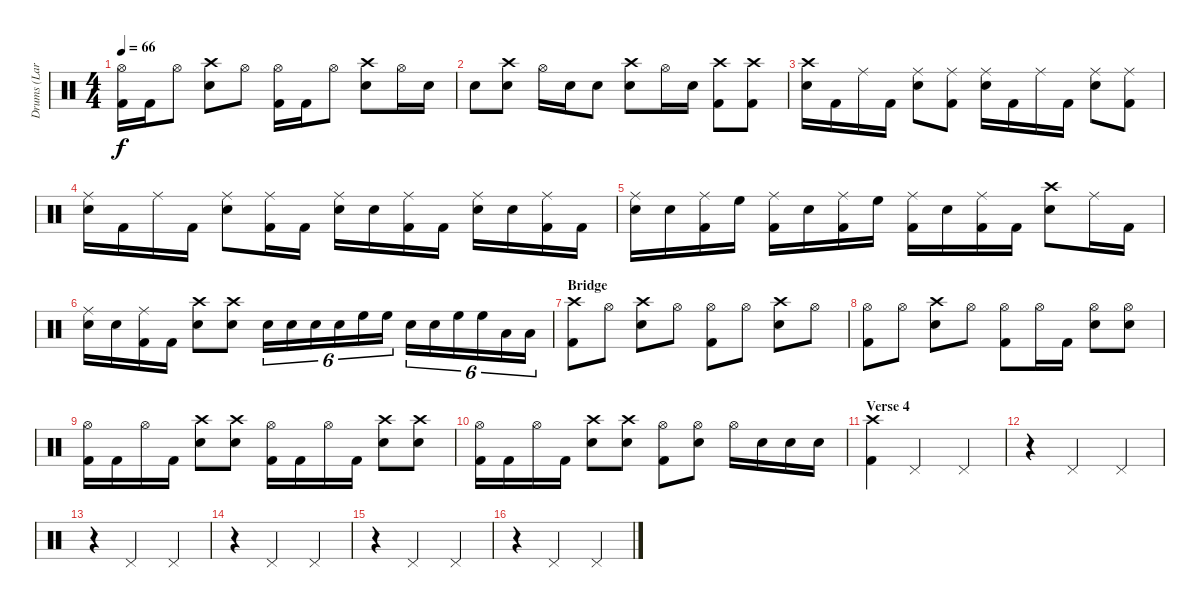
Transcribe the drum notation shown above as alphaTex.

\track ("Drums (Lars)" "Drums (Lar") {instrument percussion}
\staff {score}
\articulation defaults
\ts (4 4)
\tempo 66
\clef neutral
\ks c
("Hi-Hat (open)" "Kick (hit) 2").16{dy f} "Kick (hit) 2".16 "Hi-Hat (open)".8 ("Crash high (hit)" "Snare (hit) 2").8 "Hi-Hat (open)".8 ("Hi-Hat (open)" "Kick (hit) 2").16 "Kick (hit) 2".16 "Hi-Hat (open)".8 ("Crash high (hit)" "Snare (hit) 2").8 "Hi-Hat (open)".16 "Snare (hit) 2".16 |
"Snare (hit) 2".8 ("Crash high (hit)" "Snare (hit) 2").8 "Hi-Hat (open)".16 "Snare (hit) 2".16 "Snare (hit) 2".8 ("Crash high (hit)" "Snare (hit) 2").8 "Hi-Hat (open)".16 "Snare (hit) 2".16 ("Crash high (hit)" "Kick (hit) 2").8 ("Crash high (hit)" "Kick (hit) 2").8 |
("Crash high (hit)" "Snare (hit) 2").16 "Kick (hit) 2".16 "Ride (middle)".16 "Kick (hit) 2".16 ("Ride (middle)" "Snare (hit) 2").8 ("Ride (middle)" "Kick (hit) 2").8 ("Ride (middle)" "Snare (hit) 2").16 "Kick (hit) 2".16 "Ride (middle)".16 "Kick (hit) 2".16 ("Ride (middle)" "Snare (hit) 2").8 ("Ride (middle)" "Kick (hit) 2").8 |
("Ride (middle)" "Snare (hit) 2").16 "Kick (hit) 2".16 "Ride (middle)".16 "Kick (hit) 2".16 ("Ride (middle)" "Snare (hit) 2").8 ("Ride (middle)" "Kick (hit) 2").16 "Kick (hit) 2".16 ("Ride (middle)" "Snare (hit) 2").16 "Snare (hit) 2".16 ("Ride (middle)" "Kick (hit) 2").16 "Kick (hit) 2".16 ("Ride (middle)" "Snare (hit) 2").16 "Snare (hit) 2".16 ("Ride (middle)" "Kick (hit) 2").16 "Kick (hit) 2".16 |
("Ride (middle)" "Snare (hit) 2").16 "Snare (hit) 2".16 ("Ride (middle)" "Kick (hit) 2").16 "High Floor Tom (hit)".16 ("Ride (middle)" "Kick (hit) 2").16 "Snare (hit) 2".16 ("Ride (middle)" "Kick (hit) 2").16 "High Floor Tom (hit)".16 ("Ride (middle)" "Kick (hit) 2").16 "Snare (hit) 2".16 ("Ride (middle)" "Kick (hit) 2").16 "Kick (hit) 2".16 ("Crash high (hit)" "Snare (hit) 2").8 "Ride (middle)".16 "Kick (hit) 2".16 |
("Ride (middle)" "Snare (hit) 2").16 "Snare (hit) 2".16 ("Ride (middle)" "Kick (hit) 2").16 "Kick (hit) 2".16 ("Crash high (hit)" "Snare (hit) 2").8 ("Crash high (hit)" "Snare (hit) 2").8 "Snare (hit) 2".16{tu (6 4)} "Snare (hit) 2".16{tu (6 4)} "Snare (hit) 2".16{tu (6 4)} "Snare (hit) 2".16{tu (6 4)} "High Floor Tom (hit)".16{tu (6 4)} "High Floor Tom (hit)".16{tu (6 4)} "Snare (hit) 2".16{tu (6 4)} "Snare (hit) 2".16{tu (6 4)} "High Floor Tom (hit)".16{tu (6 4)} "High Floor Tom (hit)".16{tu (6 4)} "Low Tom (hit)".16{tu (6 4)} "Low Tom (hit)".16{tu (6 4)} |
\section ("" "Bridge")
("Crash high (hit)" "Kick (hit) 2").8 "Hi-Hat (open)".8 ("Crash high (hit)" "Snare (hit) 2").8 "Hi-Hat (open)".8 ("Hi-Hat (open)" "Kick (hit) 2").8 "Hi-Hat (open)".8 ("Crash high (hit)" "Snare (hit) 2").8 "Hi-Hat (open)".8 |
("Hi-Hat (open)" "Kick (hit) 2").8 "Hi-Hat (open)".8 ("Crash high (hit)" "Snare (hit) 2").8 "Hi-Hat (open)".8 ("Hi-Hat (open)" "Kick (hit) 2").8 "Hi-Hat (open)".16 "Kick (hit) 2".16 ("Hi-Hat (open)" "Snare (hit) 2").8 ("Hi-Hat (open)" "Snare (hit) 2").8 |
("Hi-Hat (open)" "Kick (hit) 2").16 "Kick (hit) 2".16 "Hi-Hat (open)".16 "Kick (hit) 2".16 ("Crash high (hit)" "Snare (hit) 2").8 ("Crash high (hit)" "Snare (hit) 2").8 ("Hi-Hat (open)" "Kick (hit) 2").16 "Kick (hit) 2".16 "Hi-Hat (open)".16 "Kick (hit) 2".16 ("Crash high (hit)" "Snare (hit) 2").8 ("Crash high (hit)" "Snare (hit) 2").8 |
("Hi-Hat (open)" "Kick (hit) 2").16 "Kick (hit) 2".16 "Hi-Hat (open)".16 "Kick (hit) 2".16 ("Crash high (hit)" "Snare (hit) 2").8 ("Crash high (hit)" "Snare (hit) 2").8 ("Hi-Hat (open)" "Kick (hit) 2").8 ("Hi-Hat (open)" "Snare (hit) 2").8 "Hi-Hat (open)".16 "Snare (hit) 2".16 "Snare (hit) 2".16 "Snare (hit) 2".16 |
\section ("" "Verse 4")
("Crash high (hit)" "Kick (hit) 2").4 "Pedal Hi-Hat (hit)".2 "Pedal Hi-Hat (hit)".4 |
r.4 "Pedal Hi-Hat (hit)".2 "Pedal Hi-Hat (hit)".4 |
r.4 "Pedal Hi-Hat (hit)".2 "Pedal Hi-Hat (hit)".4 |
r.4 "Pedal Hi-Hat (hit)".2 "Pedal Hi-Hat (hit)".4 |
r.4 "Pedal Hi-Hat (hit)".2 "Pedal Hi-Hat (hit)".4 |
r.4 "Pedal Hi-Hat (hit)".2 "Pedal Hi-Hat (hit)".4
